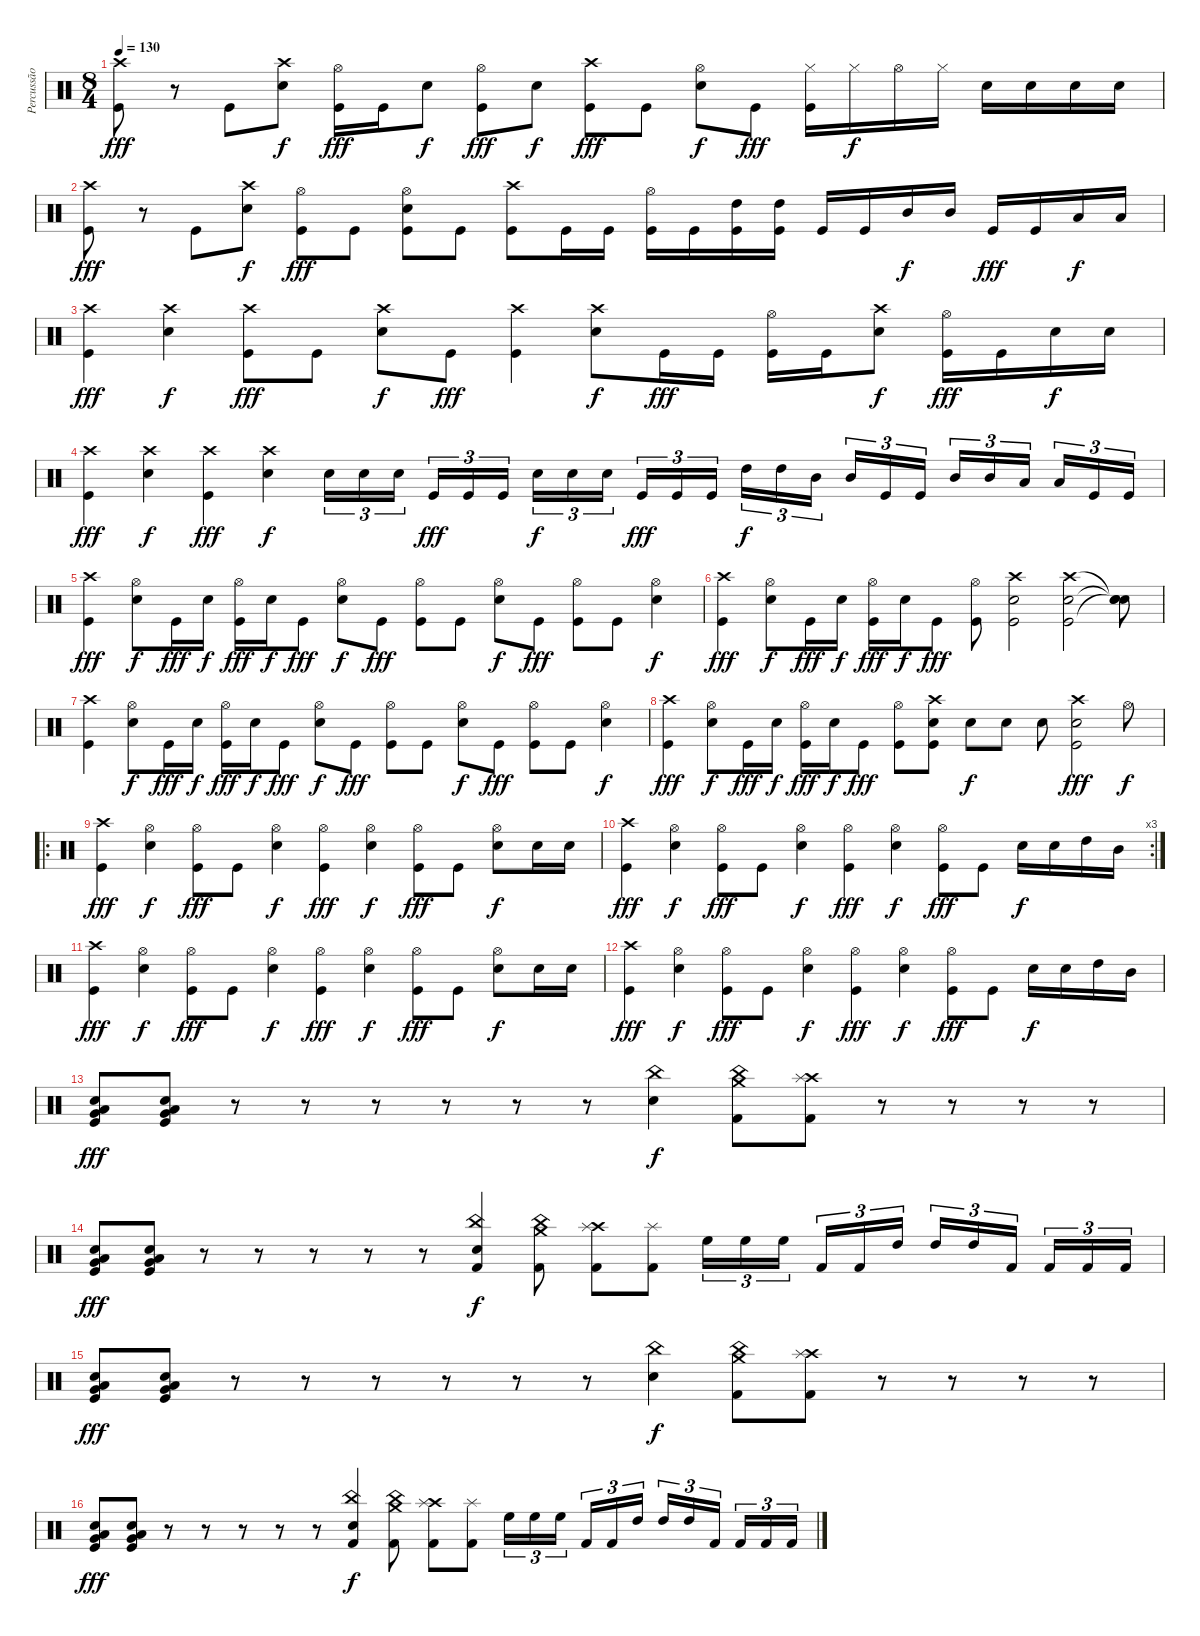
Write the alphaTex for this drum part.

\track ("Percussão" "Percussão") {instrument percussion}
\staff {score}
\articulation defaults
\ts (8 4)
\tempo 130
\clef neutral
\ks c
("Crash high (hit)" "Kick (hit)").8{dy fff} r.8 "Kick (hit)".8 ("Crash high (hit)" "Electric Snare (hit)").8{dy f} ("Hi-Hat (open)" "Kick (hit)").16{dy fff} "Kick (hit)".16 "Electric Snare (hit)".8{dy f} ("Hi-Hat (open)" "Kick (hit)").8{dy fff} "Electric Snare (hit)".8{dy f} ("Crash high (hit)" "Kick (hit)").8{dy fff} "Kick (hit)".8 ("Hi-Hat (open)" "Electric Snare (hit)").8{dy f} "Kick (hit)".8{dy fff} ("Hi-Hat (closed)" "Kick (hit)").16 "Hi-Hat (closed)".16{dy f} "Hi-Hat (open)".16 "Hi-Hat (closed)".16 "Electric Snare (hit)".16 "Electric Snare (hit)".16 "Electric Snare (hit)".16 "Electric Snare (hit)".16 |
("Crash high (hit)" "Kick (hit)").8{dy fff} r.8 "Kick (hit)".8 ("Crash high (hit)" "Electric Snare (hit)").8{dy f} ("Hi-Hat (open)" "Kick (hit)").8{dy fff} "Kick (hit)".8 ("Hi-Hat (open)" "Electric Snare (hit)" "Kick (hit)").8 "Kick (hit)".8 ("Crash high (hit)" "Kick (hit)").8 "Kick (hit)".16 "Kick (hit)".16 ("Hi-Hat (open)" "Kick (hit)").16 "Kick (hit)".16 ("High Tom (hit)" "Kick (hit)").16 ("High Tom (hit)" "Kick (hit)").16 "Kick (hit)".16 "Kick (hit)".16 "Mid Tom (hit)".16{dy f} "Mid Tom (hit)".16 "Kick (hit)".16{dy fff} "Kick (hit)".16 "Low Tom (hit)".16{dy f} "Low Tom (hit)".16 |
("Crash high (hit)" "Kick (hit)").4{dy fff} ("Crash high (hit)" "Electric Snare (hit)").4{dy f} ("Crash high (hit)" "Kick (hit)").8{dy fff} "Kick (hit)".8 ("Crash high (hit)" "Electric Snare (hit)").8{dy f} "Kick (hit)".8{dy fff} ("Crash high (hit)" "Kick (hit)").4 ("Crash high (hit)" "Electric Snare (hit)").8{dy f} "Kick (hit)".16{dy fff} "Kick (hit)".16 ("Hi-Hat (open)" "Kick (hit)").16 "Kick (hit)".16 ("Crash high (hit)" "Electric Snare (hit)").8{dy f} ("Hi-Hat (open)" "Kick (hit)").16{dy fff} "Kick (hit)".16 "Electric Snare (hit)".16{dy f} "Electric Snare (hit)".16 |
("Crash high (hit)" "Kick (hit)").4{dy fff} ("Crash high (hit)" "Electric Snare (hit)").4{dy f} ("Crash high (hit)" "Kick (hit)").4{dy fff} ("Crash high (hit)" "Electric Snare (hit)").4{dy f} "Electric Snare (hit)".16{tu (3 2)} "Electric Snare (hit)".16{tu (3 2)} "Electric Snare (hit)".16{tu (3 2)} "Kick (hit)".16{tu (3 2) dy fff} "Kick (hit)".16{tu (3 2)} "Kick (hit)".16{tu (3 2)} "Electric Snare (hit)".16{tu (3 2) dy f} "Electric Snare (hit)".16{tu (3 2)} "Electric Snare (hit)".16{tu (3 2)} "Kick (hit)".16{tu (3 2) dy fff} "Kick (hit)".16{tu (3 2)} "Kick (hit)".16{tu (3 2)} "High Tom (hit)".16{tu (3 2) dy f} "High Tom (hit)".16{tu (3 2)} "Mid Tom (hit)".16{tu (3 2)} "Mid Tom (hit)".16{tu (3 2)} "Kick (hit)".16{tu (3 2)} "Kick (hit)".16{tu (3 2)} "Mid Tom (hit)".16{tu (3 2)} "Mid Tom (hit)".16{tu (3 2)} "Low Tom (hit)".16{tu (3 2)} "Low Tom (hit)".16{tu (3 2)} "Kick (hit)".16{tu (3 2)} "Kick (hit)".16{tu (3 2)} |
("Crash high (hit)" "Kick (hit)").4{dy fff} ("Hi-Hat (open)" "Electric Snare (hit)").8{dy f} "Kick (hit)".16{dy fff} "Electric Snare (hit)".16{dy f} ("Hi-Hat (open)" "Kick (hit)").16{dy fff} "Electric Snare (hit)".16{dy f} "Kick (hit)".8{dy fff} ("Hi-Hat (open)" "Electric Snare (hit)").8{dy f} "Kick (hit)".8{dy fff} ("Hi-Hat (open)" "Kick (hit)").8 "Kick (hit)".8 ("Hi-Hat (open)" "Electric Snare (hit)").8{dy f} "Kick (hit)".8{dy fff} ("Hi-Hat (open)" "Kick (hit)").8 "Kick (hit)".8 ("Hi-Hat (open)" "Electric Snare (hit)").4{dy f} |
("Crash high (hit)" "Kick (hit)").4{dy fff} ("Hi-Hat (open)" "Electric Snare (hit)").8{dy f} "Kick (hit)".16{dy fff} "Electric Snare (hit)".16{dy f} ("Hi-Hat (open)" "Kick (hit)").16{dy fff} "Electric Snare (hit)".16{dy f} "Kick (hit)".8{dy fff} ("Hi-Hat (open)" "Kick (hit)").8 ("Crash high (hit)" "Electric Snare (hit)" "Kick (hit)").2 ("Crash high (hit)" "Electric Snare (hit)" "Kick (hit)").2 ("Snare (hit)"{t} "Snare (hit)"{t} "Snare (hit)"{t}).8 |
("Crash high (hit)" "Kick (hit)").4 ("Hi-Hat (open)" "Electric Snare (hit)").8{dy f} "Kick (hit)".16{dy fff} "Electric Snare (hit)".16{dy f} ("Hi-Hat (open)" "Kick (hit)").16{dy fff} "Electric Snare (hit)".16{dy f} "Kick (hit)".8{dy fff} ("Hi-Hat (open)" "Electric Snare (hit)").8{dy f} "Kick (hit)".8{dy fff} ("Hi-Hat (open)" "Kick (hit)").8 "Kick (hit)".8 ("Hi-Hat (open)" "Electric Snare (hit)").8{dy f} "Kick (hit)".8{dy fff} ("Hi-Hat (open)" "Kick (hit)").8 "Kick (hit)".8 ("Hi-Hat (open)" "Electric Snare (hit)").4{dy f} |
("Crash high (hit)" "Kick (hit)").4{dy fff} ("Hi-Hat (open)" "Electric Snare (hit)").8{dy f} "Kick (hit)".16{dy fff} "Electric Snare (hit)".16{dy f} ("Hi-Hat (open)" "Kick (hit)").16{dy fff} "Electric Snare (hit)".16{dy f} "Kick (hit)".8{dy fff} ("Hi-Hat (open)" "Kick (hit)").8 ("Crash high (hit)" "Electric Snare (hit)" "Kick (hit)").8 "Electric Snare (hit)".8{dy f} "Electric Snare (hit)".8 "Electric Snare (hit)".8 ("Crash high (hit)" "Electric Snare (hit)" "Kick (hit)").2{dy fff} "Hi-Hat (open)".8{dy f} |
\ro
("Crash high (hit)" "Kick (hit)").4{dy fff} ("Hi-Hat (open)" "Electric Snare (hit)").4{dy f} ("Hi-Hat (open)" "Kick (hit)").8{dy fff} "Kick (hit)".8 ("Hi-Hat (open)" "Electric Snare (hit)").4{dy f} ("Hi-Hat (open)" "Kick (hit)").4{dy fff} ("Hi-Hat (open)" "Electric Snare (hit)").4{dy f} ("Hi-Hat (open)" "Kick (hit)").8{dy fff} "Kick (hit)".8 ("Hi-Hat (open)" "Electric Snare (hit)").8{dy f} "Electric Snare (hit)".16 "Electric Snare (hit)".16 |
\rc 3
("Crash high (hit)" "Kick (hit)").4{dy fff} ("Hi-Hat (open)" "Electric Snare (hit)").4{dy f} ("Hi-Hat (open)" "Kick (hit)").8{dy fff} "Kick (hit)".8 ("Hi-Hat (open)" "Electric Snare (hit)").4{dy f} ("Hi-Hat (open)" "Kick (hit)").4{dy fff} ("Hi-Hat (open)" "Electric Snare (hit)").4{dy f} ("Hi-Hat (open)" "Kick (hit)").8{dy fff} "Kick (hit)".8 "Electric Snare (hit)".16{dy f} "Electric Snare (hit)".16 "High Tom (hit)".16 "Mid Tom (hit)".16 |
("Crash high (hit)" "Kick (hit)").4{dy fff} ("Hi-Hat (open)" "Electric Snare (hit)").4{dy f} ("Hi-Hat (open)" "Kick (hit)").8{dy fff} "Kick (hit)".8 ("Hi-Hat (open)" "Electric Snare (hit)").4{dy f} ("Hi-Hat (open)" "Kick (hit)").4{dy fff} ("Hi-Hat (open)" "Electric Snare (hit)").4{dy f} ("Hi-Hat (open)" "Kick (hit)").8{dy fff} "Kick (hit)".8 ("Hi-Hat (open)" "Electric Snare (hit)").8{dy f} "Electric Snare (hit)".16 "Electric Snare (hit)".16 |
("Crash high (hit)" "Kick (hit)").4{dy fff} ("Hi-Hat (open)" "Electric Snare (hit)").4{dy f} ("Hi-Hat (open)" "Kick (hit)").8{dy fff} "Kick (hit)".8 ("Hi-Hat (open)" "Electric Snare (hit)").4{dy f} ("Hi-Hat (open)" "Kick (hit)").4{dy fff} ("Hi-Hat (open)" "Electric Snare (hit)").4{dy f} ("Hi-Hat (open)" "Kick (hit)").8{dy fff} "Kick (hit)".8 "Electric Snare (hit)".16{dy f} "Electric Snare (hit)".16 "High Tom (hit)".16 "Mid Tom (hit)".16 |
("Electric Snare (hit)" "Very Low Tom (hit)" "Low Tom (hit)" "Kick (hit)").8{dy fff} ("Electric Snare (hit)" "Very Low Tom (hit)" "Low Tom (hit)" "Kick (hit)").8 r.8 r.8 r.8 r.8 r.8 r.8 ("Electric Snare (hit)" "China (hit)").4{dy f} ("Crash medium (hit)" "Kick (hit) 2" "China (hit)").8 ("Crash high (hit)" "Kick (hit) 2" "Splash (hit)").8 r.8 r.8 r.8 r.8 |
("Electric Snare (hit)" "Very Low Tom (hit)" "Low Tom (hit)" "Kick (hit)").8{dy fff} ("Electric Snare (hit)" "Very Low Tom (hit)" "Low Tom (hit)" "Kick (hit)").8 r.8 r.8 r.8 r.8 r.8 ("Electric Snare (hit)" "China (hit)" "Kick (hit) 2").4{dy f} ("Crash medium (hit)" "Kick (hit) 2" "China (hit)").8 ("Crash high (hit)" "Kick (hit) 2" "Splash (hit)").8 ("Splash (hit)" "Kick (hit) 2").8 "High Floor Tom (hit)".16{tu (3 2)} "High Floor Tom (hit)".16{tu (3 2)} "High Floor Tom (hit)".16{tu (3 2)} "Kick (hit) 2".16{tu (3 2)} "Kick (hit) 2".16{tu (3 2)} "High Tom (hit)".16{tu (3 2)} "High Tom (hit)".16{tu (3 2)} "High Tom (hit)".16{tu (3 2)} "Kick (hit) 2".16{tu (3 2)} "Kick (hit) 2".16{tu (3 2)} "Kick (hit) 2".16{tu (3 2)} "Kick (hit) 2".16{tu (3 2)} |
("Electric Snare (hit)" "Very Low Tom (hit)" "Low Tom (hit)" "Kick (hit)").8{dy fff} ("Electric Snare (hit)" "Very Low Tom (hit)" "Low Tom (hit)" "Kick (hit)").8 r.8 r.8 r.8 r.8 r.8 r.8 ("Electric Snare (hit)" "China (hit)").4{dy f} ("Crash medium (hit)" "Kick (hit) 2" "China (hit)").8 ("Crash high (hit)" "Kick (hit) 2" "Splash (hit)").8 r.8 r.8 r.8 r.8 |
("Electric Snare (hit)" "Very Low Tom (hit)" "Low Tom (hit)" "Kick (hit)").8{dy fff} ("Electric Snare (hit)" "Very Low Tom (hit)" "Low Tom (hit)" "Kick (hit)").8 r.8 r.8 r.8 r.8 r.8 ("Electric Snare (hit)" "China (hit)" "Kick (hit) 2").4{dy f} ("Crash medium (hit)" "Kick (hit) 2" "China (hit)").8 ("Crash high (hit)" "Kick (hit) 2" "Splash (hit)").8 ("Splash (hit)" "Kick (hit) 2").8 "High Floor Tom (hit)".16{tu (3 2)} "High Floor Tom (hit)".16{tu (3 2)} "High Floor Tom (hit)".16{tu (3 2)} "Kick (hit) 2".16{tu (3 2)} "Kick (hit) 2".16{tu (3 2)} "High Tom (hit)".16{tu (3 2)} "High Tom (hit)".16{tu (3 2)} "High Tom (hit)".16{tu (3 2)} "Kick (hit) 2".16{tu (3 2)} "Kick (hit) 2".16{tu (3 2)} "Kick (hit) 2".16{tu (3 2)} "Kick (hit) 2".16{tu (3 2)}
